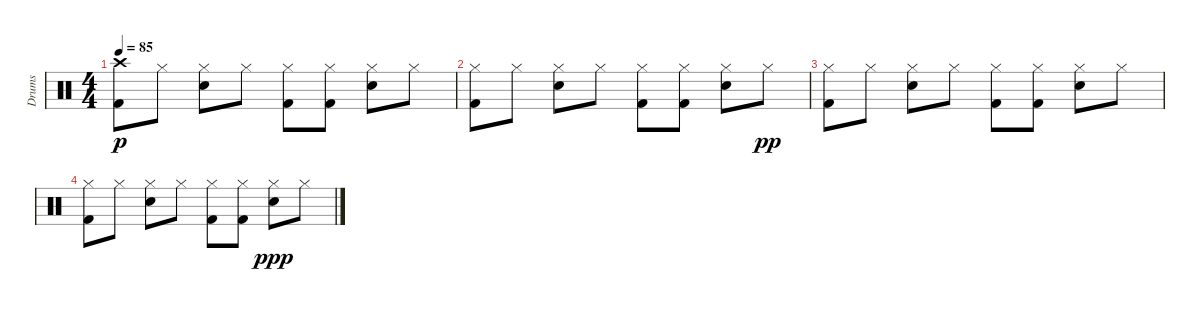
\track ("Drums" "Drums") {instrument percussion}
\staff {score}
\articulation defaults
\ts (4 4)
\tempo 85
\clef neutral
\ks c
("Kick (hit) 2" "Crash high (hit)").8{dy p} "Hi-Hat (closed)".8 ("Electric Snare (hit)" "Hi-Hat (closed)").8 "Hi-Hat (closed)".8 ("Kick (hit) 2" "Hi-Hat (closed)").8 ("Kick (hit) 2" "Hi-Hat (closed)").8 ("Electric Snare (hit)" "Hi-Hat (closed)").8 "Hi-Hat (closed)".8 |
("Kick (hit) 2" "Hi-Hat (closed)").8 "Hi-Hat (closed)".8 ("Electric Snare (hit)" "Hi-Hat (closed)").8 "Hi-Hat (closed)".8 ("Kick (hit) 2" "Hi-Hat (closed)").8 ("Kick (hit) 2" "Hi-Hat (closed)").8 ("Electric Snare (hit)" "Hi-Hat (closed)").8 "Hi-Hat (closed)".8{dy pp} |
("Kick (hit) 2" "Hi-Hat (closed)").8 "Hi-Hat (closed)".8 ("Electric Snare (hit)" "Hi-Hat (closed)").8 "Hi-Hat (closed)".8 ("Kick (hit) 2" "Hi-Hat (closed)").8 ("Kick (hit) 2" "Hi-Hat (closed)").8 ("Electric Snare (hit)" "Hi-Hat (closed)").8 "Hi-Hat (closed)".8 |
("Kick (hit) 2" "Hi-Hat (closed)").8 "Hi-Hat (closed)".8 ("Electric Snare (hit)" "Hi-Hat (closed)").8 "Hi-Hat (closed)".8 ("Kick (hit) 2" "Hi-Hat (closed)").8 ("Kick (hit) 2" "Hi-Hat (closed)").8 ("Electric Snare (hit)" "Hi-Hat (closed)").8{dy ppp} "Hi-Hat (closed)".8
